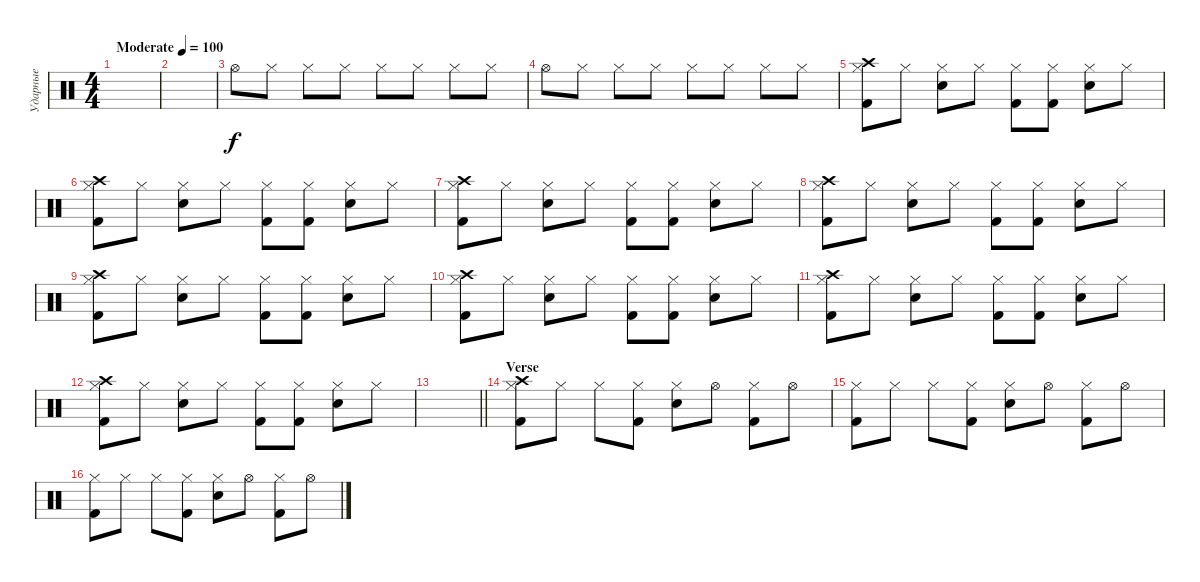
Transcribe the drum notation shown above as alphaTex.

\track ("Ударные" "Ударные") {instrument percussion}
\staff {score}
\articulation defaults
\ts (4 4)
\tempo (100 "Moderate")
\clef neutral
\ks c
|
|
"Hi-Hat (open)".8 "Hi-Hat (closed)".8 "Hi-Hat (closed)".8 "Hi-Hat (closed)".8 "Hi-Hat (closed)".8 "Hi-Hat (closed)".8 "Hi-Hat (closed)".8 "Hi-Hat (closed)".8 |
"Hi-Hat (open)".8 "Hi-Hat (closed)".8 "Hi-Hat (closed)".8 "Hi-Hat (closed)".8 "Hi-Hat (closed)".8 "Hi-Hat (closed)".8 "Hi-Hat (closed)".8 "Hi-Hat (closed)".8 |
("Hi-Hat (closed)" "Crash high (hit)" "Kick (hit) 2").8 "Hi-Hat (closed)".8 ("Hi-Hat (closed)" "Electric Snare (hit)").8 "Hi-Hat (closed)".8 ("Hi-Hat (closed)" "Kick (hit) 2").8 ("Hi-Hat (closed)" "Kick (hit) 2").8 ("Hi-Hat (closed)" "Electric Snare (hit)").8 "Hi-Hat (closed)".8 |
("Hi-Hat (closed)" "Crash high (hit)" "Kick (hit) 2").8 "Hi-Hat (closed)".8 ("Hi-Hat (closed)" "Electric Snare (hit)").8 "Hi-Hat (closed)".8 ("Hi-Hat (closed)" "Kick (hit) 2").8 ("Hi-Hat (closed)" "Kick (hit) 2").8 ("Hi-Hat (closed)" "Electric Snare (hit)").8 "Hi-Hat (closed)".8 |
("Hi-Hat (closed)" "Crash high (hit)" "Kick (hit) 2").8 "Hi-Hat (closed)".8 ("Hi-Hat (closed)" "Electric Snare (hit)").8 "Hi-Hat (closed)".8 ("Hi-Hat (closed)" "Kick (hit) 2").8 ("Hi-Hat (closed)" "Kick (hit) 2").8 ("Hi-Hat (closed)" "Electric Snare (hit)").8 "Hi-Hat (closed)".8 |
("Hi-Hat (closed)" "Crash high (hit)" "Kick (hit) 2").8 "Hi-Hat (closed)".8 ("Hi-Hat (closed)" "Electric Snare (hit)").8 "Hi-Hat (closed)".8 ("Hi-Hat (closed)" "Kick (hit) 2").8 ("Hi-Hat (closed)" "Kick (hit) 2").8 ("Hi-Hat (closed)" "Electric Snare (hit)").8 "Hi-Hat (closed)".8 |
("Hi-Hat (closed)" "Crash high (hit)" "Kick (hit) 2").8 "Hi-Hat (closed)".8 ("Hi-Hat (closed)" "Electric Snare (hit)").8 "Hi-Hat (closed)".8 ("Hi-Hat (closed)" "Kick (hit) 2").8 ("Hi-Hat (closed)" "Kick (hit) 2").8 ("Hi-Hat (closed)" "Electric Snare (hit)").8 "Hi-Hat (closed)".8 |
("Hi-Hat (closed)" "Crash high (hit)" "Kick (hit) 2").8 "Hi-Hat (closed)".8 ("Hi-Hat (closed)" "Electric Snare (hit)").8 "Hi-Hat (closed)".8 ("Hi-Hat (closed)" "Kick (hit) 2").8 ("Hi-Hat (closed)" "Kick (hit) 2").8 ("Hi-Hat (closed)" "Electric Snare (hit)").8 "Hi-Hat (closed)".8 |
("Hi-Hat (closed)" "Crash high (hit)" "Kick (hit) 2").8 "Hi-Hat (closed)".8 ("Hi-Hat (closed)" "Electric Snare (hit)").8 "Hi-Hat (closed)".8 ("Hi-Hat (closed)" "Kick (hit) 2").8 ("Hi-Hat (closed)" "Kick (hit) 2").8 ("Hi-Hat (closed)" "Electric Snare (hit)").8 "Hi-Hat (closed)".8 |
("Hi-Hat (closed)" "Crash high (hit)" "Kick (hit) 2").8 "Hi-Hat (closed)".8 ("Hi-Hat (closed)" "Electric Snare (hit)").8 "Hi-Hat (closed)".8 ("Hi-Hat (closed)" "Kick (hit) 2").8 ("Hi-Hat (closed)" "Kick (hit) 2").8 ("Hi-Hat (closed)" "Electric Snare (hit)").8 "Hi-Hat (closed)".8 |
\barLineRight lightlight
|
\section ("" "Verse")
("Crash high (hit)" "Hi-Hat (closed)" "Kick (hit) 2").8 "Hi-Hat (closed)".8 "Hi-Hat (closed)".8 ("Hi-Hat (closed)" "Kick (hit) 2").8 ("Hi-Hat (closed)" "Electric Snare (hit)").8 "Hi-Hat (open)".8 ("Hi-Hat (closed)" "Kick (hit) 2").8 "Hi-Hat (open)".8 |
("Hi-Hat (closed)" "Kick (hit) 2").8 "Hi-Hat (closed)".8 "Hi-Hat (closed)".8 ("Hi-Hat (closed)" "Kick (hit) 2").8 ("Hi-Hat (closed)" "Electric Snare (hit)").8 "Hi-Hat (open)".8 ("Hi-Hat (closed)" "Kick (hit) 2").8 "Hi-Hat (open)".8 |
("Hi-Hat (closed)" "Kick (hit) 2").8 "Hi-Hat (closed)".8 "Hi-Hat (closed)".8 ("Hi-Hat (closed)" "Kick (hit) 2").8 ("Hi-Hat (closed)" "Electric Snare (hit)").8 "Hi-Hat (open)".8 ("Hi-Hat (closed)" "Kick (hit) 2").8 "Hi-Hat (open)".8
